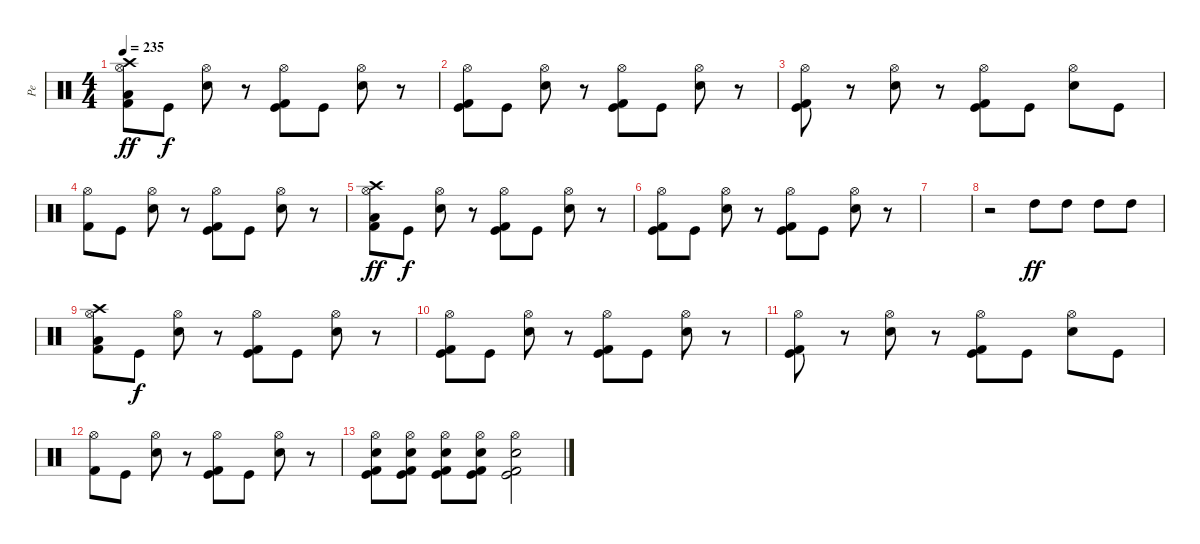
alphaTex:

\track ("Pe" "Pe") {instrument percussion}
\staff {score}
\articulation defaults
\ts (4 4)
\tempo 235
\clef neutral
\ks c
("Low Tom (hit)" "Hi-Hat (open)" "Kick (hit) 2" "Crash high (hit)").8{dy ff} "Kick (hit)".8{dy f} ("Electric Snare (hit)" "Hi-Hat (open)").8 r.8 ("Kick (hit)" "Hi-Hat (open)" "Kick (hit) 2").8 "Kick (hit)".8 ("Electric Snare (hit)" "Hi-Hat (open)").8 r.8 |
("Kick (hit)" "Hi-Hat (open)" "Kick (hit) 2").8 "Kick (hit)".8 ("Electric Snare (hit)" "Hi-Hat (open)").8 r.8 ("Kick (hit)" "Hi-Hat (open)" "Kick (hit) 2").8 "Kick (hit)".8 ("Electric Snare (hit)" "Hi-Hat (open)").8 r.8 |
("Kick (hit)" "Hi-Hat (open)" "Kick (hit) 2").8 r.8 ("Electric Snare (hit)" "Hi-Hat (open)").8 r.8 ("Kick (hit)" "Hi-Hat (open)" "Kick (hit) 2").8 "Kick (hit)".8 ("Electric Snare (hit)" "Hi-Hat (open)").8 "Kick (hit)".8 |
("Hi-Hat (open)" "Kick (hit) 2").8 "Kick (hit)".8 ("Electric Snare (hit)" "Hi-Hat (open)").8 r.8 ("Kick (hit)" "Hi-Hat (open)" "Kick (hit) 2").8 "Kick (hit)".8 ("Electric Snare (hit)" "Hi-Hat (open)").8 r.8 |
("Low Tom (hit)" "Hi-Hat (open)" "Kick (hit) 2" "Crash high (hit)").8{dy ff} "Kick (hit)".8{dy f} ("Electric Snare (hit)" "Hi-Hat (open)").8 r.8 ("Kick (hit)" "Hi-Hat (open)" "Kick (hit) 2").8 "Kick (hit)".8 ("Electric Snare (hit)" "Hi-Hat (open)").8 r.8 |
("Kick (hit)" "Hi-Hat (open)" "Kick (hit) 2").8 "Kick (hit)".8 ("Electric Snare (hit)" "Hi-Hat (open)").8 r.8 ("Kick (hit)" "Hi-Hat (open)" "Kick (hit) 2").8 "Kick (hit)".8 ("Electric Snare (hit)" "Hi-Hat (open)").8 r.8 |
|
r.2 "High Tom (hit)".8{dy ff} "High Tom (hit)".8 "High Tom (hit)".8 "High Tom (hit)".8 |
("Low Tom (hit)" "Hi-Hat (open)" "Kick (hit) 2" "Crash high (hit)").8 "Kick (hit)".8{dy f} ("Electric Snare (hit)" "Hi-Hat (open)").8 r.8 ("Kick (hit)" "Hi-Hat (open)" "Kick (hit) 2").8 "Kick (hit)".8 ("Electric Snare (hit)" "Hi-Hat (open)").8 r.8 |
("Kick (hit)" "Hi-Hat (open)" "Kick (hit) 2").8 "Kick (hit)".8 ("Electric Snare (hit)" "Hi-Hat (open)").8 r.8 ("Kick (hit)" "Hi-Hat (open)" "Kick (hit) 2").8 "Kick (hit)".8 ("Electric Snare (hit)" "Hi-Hat (open)").8 r.8 |
("Kick (hit)" "Hi-Hat (open)" "Kick (hit) 2").8 r.8 ("Electric Snare (hit)" "Hi-Hat (open)").8 r.8 ("Kick (hit)" "Hi-Hat (open)" "Kick (hit) 2").8 "Kick (hit)".8 ("Electric Snare (hit)" "Hi-Hat (open)").8 "Kick (hit)".8 |
("Hi-Hat (open)" "Kick (hit) 2").8 "Kick (hit)".8 ("Electric Snare (hit)" "Hi-Hat (open)").8 r.8 ("Kick (hit)" "Hi-Hat (open)" "Kick (hit) 2").8 "Kick (hit)".8 ("Electric Snare (hit)" "Hi-Hat (open)").8 r.8 |
("Hi-Hat (open)" "Electric Snare (hit)" "Kick (hit)" "Kick (hit) 2").8 ("Hi-Hat (open)" "Electric Snare (hit)" "Kick (hit)" "Kick (hit) 2").8 ("Hi-Hat (open)" "Electric Snare (hit)" "Kick (hit)" "Kick (hit) 2").8 ("Hi-Hat (open)" "Electric Snare (hit)" "Kick (hit)" "Kick (hit) 2").8 ("Hi-Hat (open)" "Electric Snare (hit)" "Kick (hit)" "Kick (hit) 2").2
